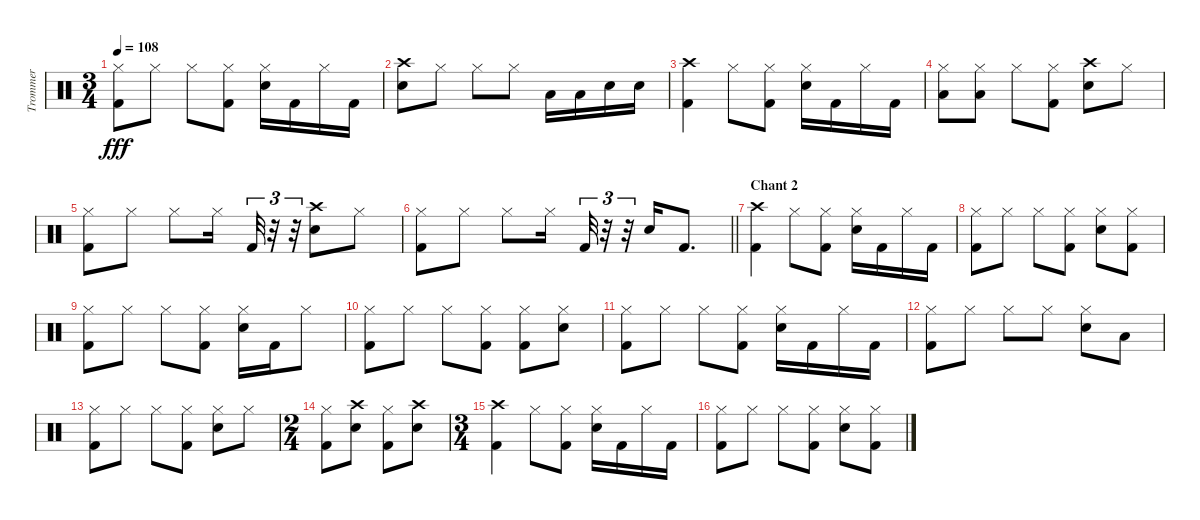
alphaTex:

\track ("Trommer" "Trommer") {instrument percussion}
\staff {score}
\articulation defaults
\ts (3 4)
\tempo 108
\clef neutral
\ks c
("Hi-Hat (closed)" "Kick (hit) 2").8{dy fff} "Hi-Hat (closed)".8 "Hi-Hat (closed)".8 ("Hi-Hat (closed)" "Kick (hit) 2").8 ("Hi-Hat (closed)" "Electric Snare (hit)").16 "Kick (hit) 2".16 "Hi-Hat (closed)".16 "Kick (hit) 2".16 |
("Crash high (hit)" "Electric Snare (hit)").8 "Hi-Hat (closed)".8 "Hi-Hat (closed)".8 "Hi-Hat (closed)".8 "Low Tom (hit)".16 "Low Tom (hit)".16 "Electric Snare (hit)".16 "Electric Snare (hit)".16 |
("Crash high (hit)" "Kick (hit) 2").4 "Hi-Hat (closed)".8 ("Hi-Hat (closed)" "Kick (hit) 2").8 ("Hi-Hat (closed)" "Electric Snare (hit)").16 "Kick (hit) 2".16 "Hi-Hat (closed)".16 "Kick (hit) 2".16 |
("Hi-Hat (closed)" "Low Tom (hit)").8 ("Hi-Hat (closed)" "Low Tom (hit)").8 "Hi-Hat (closed)".8 ("Hi-Hat (closed)" "Kick (hit) 2").8 ("Crash high (hit)" "Electric Snare (hit)").8 "Hi-Hat (closed)".8 |
("Hi-Hat (closed)" "Kick (hit) 2").8 "Hi-Hat (closed)".8 "Hi-Hat (closed)".8 "Hi-Hat (closed)".16 "Kick (hit) 2".32{tu (3 2)} r.32{tu (3 2)} r.32{tu (3 2)} ("Crash high (hit)" "Electric Snare (hit)").8 "Hi-Hat (closed)".8 |
\barLineRight lightlight
("Hi-Hat (closed)" "Kick (hit) 2").8 "Hi-Hat (closed)".8 "Hi-Hat (closed)".8 "Hi-Hat (closed)".16 "Kick (hit) 2".32{tu (3 2)} r.32{tu (3 2)} r.32{tu (3 2)} "Electric Snare (hit)".16 "Kick (hit) 2".8{d} |
\section ("" "Chant 2")
("Crash high (hit)" "Kick (hit) 2").4 "Hi-Hat (closed)".8 ("Hi-Hat (closed)" "Kick (hit) 2").8 ("Hi-Hat (closed)" "Electric Snare (hit)").16 "Kick (hit) 2".16 "Hi-Hat (closed)".16 "Kick (hit) 2".16 |
("Hi-Hat (closed)" "Kick (hit) 2").8 "Hi-Hat (closed)".8 "Hi-Hat (closed)".8 ("Hi-Hat (closed)" "Kick (hit) 2").8 ("Hi-Hat (closed)" "Electric Snare (hit)").8 ("Hi-Hat (closed)" "Kick (hit) 2").8 |
("Hi-Hat (closed)" "Kick (hit) 2").8 "Hi-Hat (closed)".8 "Hi-Hat (closed)".8 ("Hi-Hat (closed)" "Kick (hit) 2").8 ("Hi-Hat (closed)" "Electric Snare (hit)").16 "Kick (hit) 2".16 "Hi-Hat (closed)".8 |
("Hi-Hat (closed)" "Kick (hit) 2").8 "Hi-Hat (closed)".8 "Hi-Hat (closed)".8 ("Hi-Hat (closed)" "Kick (hit) 2").8 ("Hi-Hat (closed)" "Kick (hit) 2").8 ("Hi-Hat (closed)" "Electric Snare (hit)").8 |
("Hi-Hat (closed)" "Kick (hit) 2").8 "Hi-Hat (closed)".8 "Hi-Hat (closed)".8 ("Hi-Hat (closed)" "Kick (hit) 2").8 ("Hi-Hat (closed)" "Electric Snare (hit)").16 "Kick (hit) 2".16 "Hi-Hat (closed)".16 "Kick (hit) 2".16 |
("Hi-Hat (closed)" "Kick (hit) 2").8 "Hi-Hat (closed)".8 "Hi-Hat (closed)".8 "Hi-Hat (closed)".8 ("Hi-Hat (closed)" "Electric Snare (hit)").8 "Low Tom (hit)".8 |
("Hi-Hat (closed)" "Kick (hit) 2").8 "Hi-Hat (closed)".8 "Hi-Hat (closed)".8 ("Hi-Hat (closed)" "Kick (hit) 2").8 ("Hi-Hat (closed)" "Snare (hit) 2").8 "Hi-Hat (closed)".8 |
\ts (2 4)
("Hi-Hat (closed)" "Kick (hit) 2").8 ("Crash high (hit)" "Electric Snare (hit)").8 ("Hi-Hat (closed)" "Kick (hit) 2").8 ("Crash high (hit)" "Electric Snare (hit)").8 |
\ts (3 4)
("Crash high (hit)" "Kick (hit) 2").4 "Hi-Hat (closed)".8 ("Hi-Hat (closed)" "Kick (hit) 2").8 ("Hi-Hat (closed)" "Electric Snare (hit)").16 "Kick (hit) 2".16 "Hi-Hat (closed)".16 "Kick (hit) 2".16 |
("Hi-Hat (closed)" "Kick (hit) 2").8 "Hi-Hat (closed)".8 "Hi-Hat (closed)".8 ("Hi-Hat (closed)" "Kick (hit) 2").8 ("Hi-Hat (closed)" "Electric Snare (hit)").8 ("Hi-Hat (closed)" "Kick (hit) 2").8
